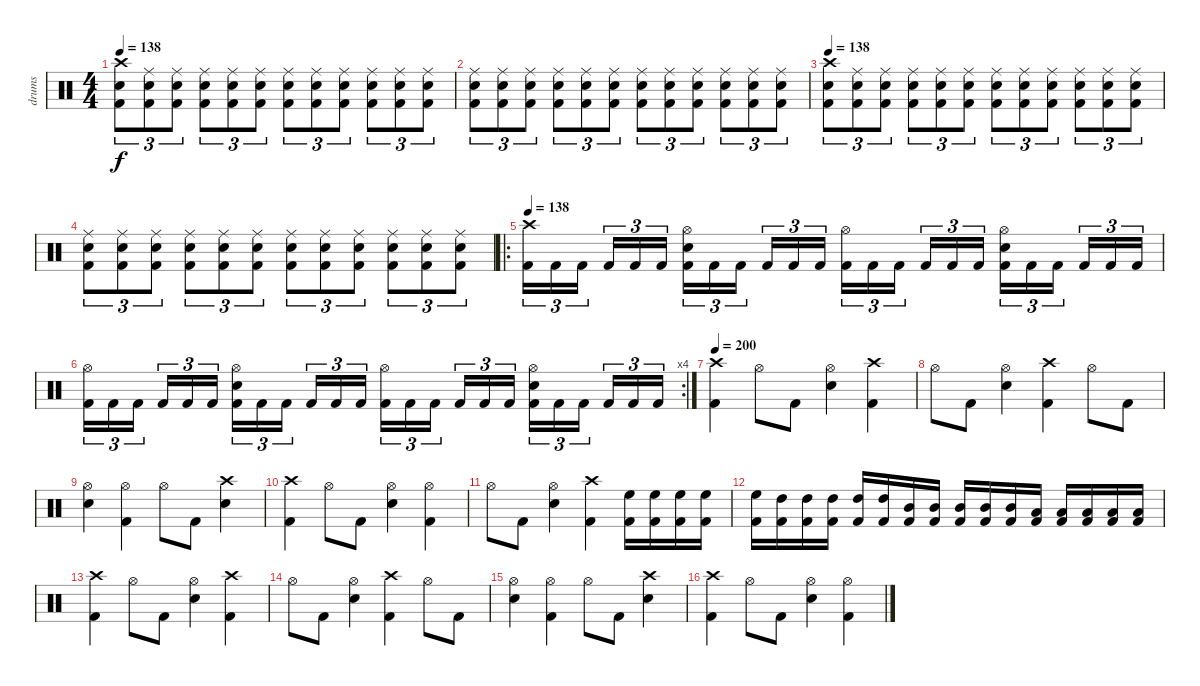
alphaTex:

\track ("drums" "drums") {instrument percussion}
\staff {score}
\articulation defaults
\ts (4 4)
\tempo 138
\clef neutral
\ks c
("Kick (hit) 2" "Snare (hit) 2" "Crash high (hit)").8{tu (3 2) dy f} ("Kick (hit) 2" "Snare (hit) 2" "Ride (middle)").8{tu (3 2)} ("Kick (hit) 2" "Snare (hit) 2" "Ride (middle)").8{tu (3 2)} ("Kick (hit) 2" "Snare (hit) 2" "Ride (middle)").8{tu (3 2)} ("Kick (hit) 2" "Snare (hit) 2" "Ride (middle)").8{tu (3 2)} ("Kick (hit) 2" "Snare (hit) 2" "Ride (middle)").8{tu (3 2)} ("Kick (hit) 2" "Snare (hit) 2" "Ride (middle)").8{tu (3 2)} ("Kick (hit) 2" "Snare (hit) 2" "Ride (middle)").8{tu (3 2)} ("Kick (hit) 2" "Snare (hit) 2" "Ride (middle)").8{tu (3 2)} ("Kick (hit) 2" "Snare (hit) 2" "Ride (middle)").8{tu (3 2)} ("Kick (hit) 2" "Snare (hit) 2" "Ride (middle)").8{tu (3 2)} ("Kick (hit) 2" "Snare (hit) 2" "Ride (middle)").8{tu (3 2)} |
("Kick (hit) 2" "Snare (hit) 2" "Ride (middle)").8{tu (3 2)} ("Kick (hit) 2" "Snare (hit) 2" "Ride (middle)").8{tu (3 2)} ("Kick (hit) 2" "Snare (hit) 2" "Ride (middle)").8{tu (3 2)} ("Kick (hit) 2" "Snare (hit) 2" "Ride (middle)").8{tu (3 2)} ("Kick (hit) 2" "Snare (hit) 2" "Ride (middle)").8{tu (3 2)} ("Kick (hit) 2" "Snare (hit) 2" "Ride (middle)").8{tu (3 2)} ("Kick (hit) 2" "Snare (hit) 2" "Ride (middle)").8{tu (3 2)} ("Kick (hit) 2" "Snare (hit) 2" "Ride (middle)").8{tu (3 2)} ("Kick (hit) 2" "Snare (hit) 2" "Ride (middle)").8{tu (3 2)} ("Kick (hit) 2" "Snare (hit) 2" "Ride (middle)").8{tu (3 2)} ("Kick (hit) 2" "Snare (hit) 2" "Ride (middle)").8{tu (3 2)} ("Kick (hit) 2" "Snare (hit) 2" "Ride (middle)").8{tu (3 2)} |
\tempo 138
("Kick (hit) 2" "Snare (hit) 2" "Crash high (hit)").8{tu (3 2)} ("Kick (hit) 2" "Snare (hit) 2" "Ride (middle)").8{tu (3 2)} ("Kick (hit) 2" "Snare (hit) 2" "Ride (middle)").8{tu (3 2)} ("Kick (hit) 2" "Snare (hit) 2" "Ride (middle)").8{tu (3 2)} ("Kick (hit) 2" "Snare (hit) 2" "Ride (middle)").8{tu (3 2)} ("Kick (hit) 2" "Snare (hit) 2" "Ride (middle)").8{tu (3 2)} ("Kick (hit) 2" "Snare (hit) 2" "Ride (middle)").8{tu (3 2)} ("Kick (hit) 2" "Snare (hit) 2" "Ride (middle)").8{tu (3 2)} ("Kick (hit) 2" "Snare (hit) 2" "Ride (middle)").8{tu (3 2)} ("Kick (hit) 2" "Snare (hit) 2" "Ride (middle)").8{tu (3 2)} ("Kick (hit) 2" "Snare (hit) 2" "Ride (middle)").8{tu (3 2)} ("Kick (hit) 2" "Snare (hit) 2" "Ride (middle)").8{tu (3 2)} |
("Kick (hit) 2" "Snare (hit) 2" "Ride (middle)").8{tu (3 2)} ("Kick (hit) 2" "Snare (hit) 2" "Ride (middle)").8{tu (3 2)} ("Kick (hit) 2" "Snare (hit) 2" "Ride (middle)").8{tu (3 2)} ("Kick (hit) 2" "Snare (hit) 2" "Ride (middle)").8{tu (3 2)} ("Kick (hit) 2" "Snare (hit) 2" "Ride (middle)").8{tu (3 2)} ("Kick (hit) 2" "Snare (hit) 2" "Ride (middle)").8{tu (3 2)} ("Kick (hit) 2" "Snare (hit) 2" "Ride (middle)").8{tu (3 2)} ("Kick (hit) 2" "Snare (hit) 2" "Ride (middle)").8{tu (3 2)} ("Kick (hit) 2" "Snare (hit) 2" "Ride (middle)").8{tu (3 2)} ("Kick (hit) 2" "Snare (hit) 2" "Ride (middle)").8{tu (3 2)} ("Kick (hit) 2" "Snare (hit) 2" "Ride (middle)").8{tu (3 2)} ("Kick (hit) 2" "Snare (hit) 2" "Ride (middle)").8{tu (3 2)} |
\ro
\tempo 138
("Kick (hit) 2" "Crash high (hit)").16{tu (3 2)} "Kick (hit) 2".16{tu (3 2)} "Kick (hit) 2".16{tu (3 2)} "Kick (hit) 2".16{tu (3 2)} "Kick (hit) 2".16{tu (3 2)} "Kick (hit) 2".16{tu (3 2)} ("Kick (hit) 2" "Snare (hit) 2" "Hi-Hat (open)").16{tu (3 2)} "Kick (hit) 2".16{tu (3 2)} "Kick (hit) 2".16{tu (3 2)} "Kick (hit) 2".16{tu (3 2)} "Kick (hit) 2".16{tu (3 2)} "Kick (hit) 2".16{tu (3 2)} ("Kick (hit) 2" "Hi-Hat (open)").16{tu (3 2)} "Kick (hit) 2".16{tu (3 2)} "Kick (hit) 2".16{tu (3 2)} "Kick (hit) 2".16{tu (3 2)} "Kick (hit) 2".16{tu (3 2)} "Kick (hit) 2".16{tu (3 2)} ("Kick (hit) 2" "Snare (hit) 2" "Hi-Hat (open)").16{tu (3 2)} "Kick (hit) 2".16{tu (3 2)} "Kick (hit) 2".16{tu (3 2)} "Kick (hit) 2".16{tu (3 2)} "Kick (hit) 2".16{tu (3 2)} "Kick (hit) 2".16{tu (3 2)} |
\rc 4
("Kick (hit) 2" "Hi-Hat (open)").16{tu (3 2)} "Kick (hit) 2".16{tu (3 2)} "Kick (hit) 2".16{tu (3 2)} "Kick (hit) 2".16{tu (3 2)} "Kick (hit) 2".16{tu (3 2)} "Kick (hit) 2".16{tu (3 2)} ("Kick (hit) 2" "Snare (hit) 2" "Hi-Hat (open)").16{tu (3 2)} "Kick (hit) 2".16{tu (3 2)} "Kick (hit) 2".16{tu (3 2)} "Kick (hit) 2".16{tu (3 2)} "Kick (hit) 2".16{tu (3 2)} "Kick (hit) 2".16{tu (3 2)} ("Kick (hit) 2" "Hi-Hat (open)").16{tu (3 2)} "Kick (hit) 2".16{tu (3 2)} "Kick (hit) 2".16{tu (3 2)} "Kick (hit) 2".16{tu (3 2)} "Kick (hit) 2".16{tu (3 2)} "Kick (hit) 2".16{tu (3 2)} ("Kick (hit) 2" "Snare (hit) 2" "Hi-Hat (open)").16{tu (3 2)} "Kick (hit) 2".16{tu (3 2)} "Kick (hit) 2".16{tu (3 2)} "Kick (hit) 2".16{tu (3 2)} "Kick (hit) 2".16{tu (3 2)} "Kick (hit) 2".16{tu (3 2)} |
\tempo 200
("Kick (hit) 2" "Crash high (hit)").4 "Hi-Hat (open)".8 "Kick (hit) 2".8 ("Snare (hit) 2" "Hi-Hat (open)").4 ("Kick (hit) 2" "Crash high (hit)").4 |
"Hi-Hat (open)".8 "Kick (hit) 2".8 ("Snare (hit) 2" "Hi-Hat (open)").4 ("Kick (hit) 2" "Crash high (hit)").4 "Hi-Hat (open)".8 "Kick (hit) 2".8 |
("Snare (hit) 2" "Hi-Hat (open)").4 ("Kick (hit) 2" "Hi-Hat (open)").4 "Hi-Hat (open)".8 "Kick (hit) 2".8 ("Snare (hit) 2" "Crash high (hit)").4 |
("Kick (hit) 2" "Crash high (hit)").4 "Hi-Hat (open)".8 "Kick (hit) 2".8 ("Snare (hit) 2" "Hi-Hat (open)").4 ("Kick (hit) 2" "Hi-Hat (open)").4 |
"Hi-Hat (open)".8 "Kick (hit) 2".8 ("Snare (hit) 2" "Hi-Hat (open)").4 ("Kick (hit) 2" "Crash high (hit)").4 ("Kick (hit) 2" "High Floor Tom (hit)").16 ("Kick (hit) 2" "High Floor Tom (hit)").16 ("Kick (hit) 2" "High Floor Tom (hit)").16 ("Kick (hit) 2" "High Floor Tom (hit)").16 |
("Kick (hit) 2" "High Floor Tom (hit)").16 ("Kick (hit) 2" "High Tom (hit)").16 ("Kick (hit) 2" "High Tom (hit)").16 ("Kick (hit) 2" "High Tom (hit)").16 ("Kick (hit) 2" "High Tom (hit)").16 ("Kick (hit) 2" "High Tom (hit)").16 ("Kick (hit) 2" "Mid Tom (hit)").16 ("Kick (hit) 2" "Mid Tom (hit)").16 ("Kick (hit) 2" "Mid Tom (hit)").16 ("Kick (hit) 2" "Mid Tom (hit)").16 ("Kick (hit) 2" "Mid Tom (hit)").16 ("Kick (hit) 2" "Low Tom (hit)").16 ("Kick (hit) 2" "Low Tom (hit)").16 ("Kick (hit) 2" "Low Tom (hit)").16 ("Kick (hit) 2" "Low Tom (hit)").16 ("Kick (hit) 2" "Low Tom (hit)").16 |
("Kick (hit) 2" "Crash high (hit)").4 "Hi-Hat (open)".8 "Kick (hit) 2".8 ("Snare (hit) 2" "Hi-Hat (open)").4 ("Kick (hit) 2" "Crash high (hit)").4 |
"Hi-Hat (open)".8 "Kick (hit) 2".8 ("Snare (hit) 2" "Hi-Hat (open)").4 ("Kick (hit) 2" "Crash high (hit)").4 "Hi-Hat (open)".8 "Kick (hit) 2".8 |
("Snare (hit) 2" "Hi-Hat (open)").4 ("Kick (hit) 2" "Hi-Hat (open)").4 "Hi-Hat (open)".8 "Kick (hit) 2".8 ("Snare (hit) 2" "Crash high (hit)").4 |
("Kick (hit) 2" "Crash high (hit)").4 "Hi-Hat (open)".8 "Kick (hit) 2".8 ("Snare (hit) 2" "Hi-Hat (open)").4 ("Kick (hit) 2" "Hi-Hat (open)").4
